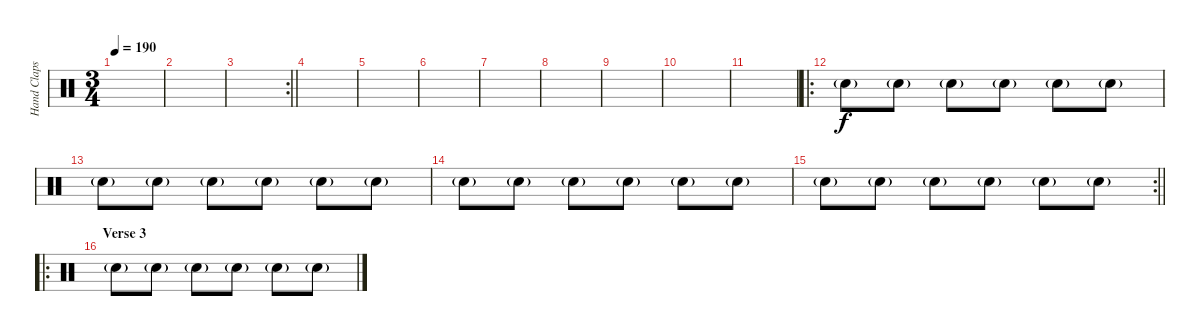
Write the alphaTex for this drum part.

\track ("Hand Claps" "Hand Claps") {instrument percussion bank 1}
\staff {score}
\articulation defaults
\ts (3 4)
\tempo 190
\clef neutral
\ks c
|
|
\rc 2
\barLineRight lightlight
|
|
|
|
|
|
|
|
|
\ro "Hand Clap (hit)"{g}.8 "Hand Clap (hit)"{g}.8 "Hand Clap (hit)"{g}.8 "Hand Clap (hit)"{g}.8 "Hand Clap (hit)"{g}.8 "Hand Clap (hit)"{g}.8
|
"Hand Clap (hit)"{g}.8 "Hand Clap (hit)"{g}.8 "Hand Clap (hit)"{g}.8 "Hand Clap (hit)"{g}.8 "Hand Clap (hit)"{g}.8 "Hand Clap (hit)"{g}.8 |
"Hand Clap (hit)"{g}.8 "Hand Clap (hit)"{g}.8 "Hand Clap (hit)"{g}.8 "Hand Clap (hit)"{g}.8 "Hand Clap (hit)"{g}.8 "Hand Clap (hit)"{g}.8 |
\rc 2
\barLineRight lightlight "Hand Clap (hit)"{g}.8 "Hand Clap (hit)"{g}.8 "Hand Clap (hit)"{g}.8 "Hand Clap (hit)"{g}.8 "Hand Clap (hit)"{g}.8 "Hand Clap (hit)"{g}.8
|
\ro
\section ("" "Verse 3")
"Hand Clap (hit)"{g}.8 "Hand Clap (hit)"{g}.8 "Hand Clap (hit)"{g}.8 "Hand Clap (hit)"{g}.8 "Hand Clap (hit)"{g}.8 "Hand Clap (hit)"{g}.8
